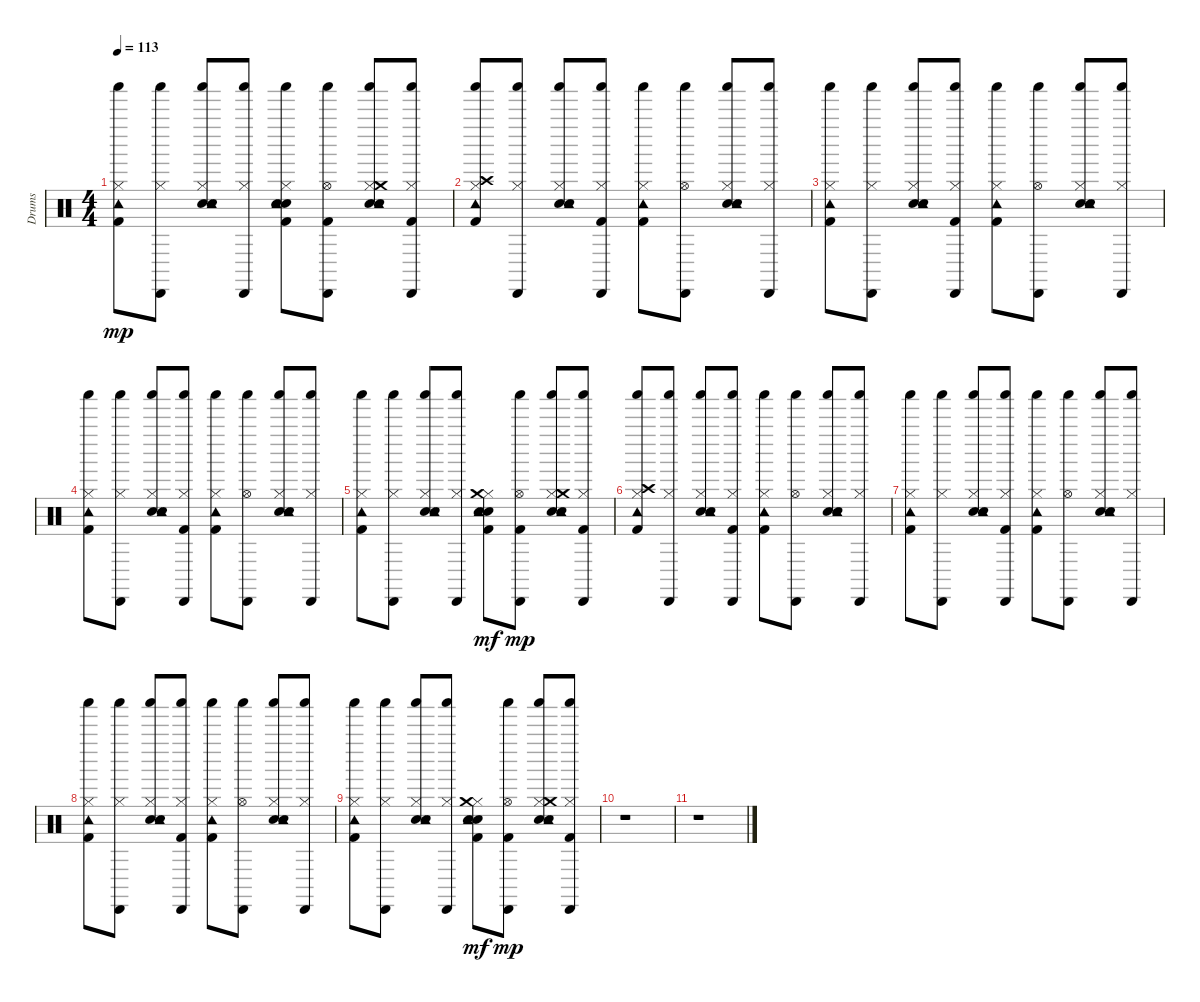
\track ("Drums" "Drums") {instrument percussion}
\staff {score}
\articulation defaults
\ts (4 4)
\tempo 113
\clef neutral
\ks c
("Kick (hit) 2" "Hi-Hat (closed)" "Tambourine (hit)" "Shaker (hit)").8{dy mp} ("Hi-Hat (closed)" "Shaker (hit)" "Cabasa (hit)").8 ("Hand Clap (hit)" "Snare (hit) 2" "Hi-Hat (closed)" "Tambourine (hit)" "Shaker (hit)").8 ("Hi-Hat (closed)" "Shaker (hit)" "Cabasa (hit)").8 ("Kick (hit) 2" "Hand Clap (hit)" "Snare (hit) 2" "Hi-Hat (closed)" "Tambourine (hit)" "Shaker (hit)").8 ("Kick (hit) 2" "Hi-Hat (open)" "Shaker (hit)" "Cabasa (hit)").8 ("Hand Clap (hit)" "Snare (hit) 2" "Hi-Hat (closed)" "Crash medium (hit)" "Tambourine (hit)" "Shaker (hit)").8 ("Kick (hit) 2" "Hi-Hat (closed)" "Shaker (hit)" "Cabasa (hit)").8 |
("Kick (hit) 2" "Hi-Hat (closed)" "Crash high (hit)" "Tambourine (hit)" "Shaker (hit)").8 ("Hi-Hat (closed)" "Shaker (hit)" "Cabasa (hit)").8 ("Hand Clap (hit)" "Snare (hit) 2" "Hi-Hat (closed)" "Tambourine (hit)" "Shaker (hit)").8 ("Hi-Hat (closed)" "Shaker (hit)" "Kick (hit) 2" "Cabasa (hit)").8 ("Kick (hit) 2" "Hi-Hat (closed)" "Tambourine (hit)" "Shaker (hit)").8 ("Hi-Hat (open)" "Shaker (hit)" "Cabasa (hit)").8 ("Hand Clap (hit)" "Snare (hit) 2" "Hi-Hat (closed)" "Tambourine (hit)" "Shaker (hit)").8 ("Hi-Hat (closed)" "Shaker (hit)" "Cabasa (hit)").8 |
("Kick (hit) 2" "Hi-Hat (closed)" "Tambourine (hit)" "Shaker (hit)").8 ("Hi-Hat (closed)" "Shaker (hit)" "Cabasa (hit)").8 ("Hand Clap (hit)" "Snare (hit) 2" "Hi-Hat (closed)" "Tambourine (hit)" "Shaker (hit)").8 ("Hi-Hat (closed)" "Shaker (hit)" "Kick (hit) 2" "Cabasa (hit)").8 ("Kick (hit) 2" "Hi-Hat (closed)" "Tambourine (hit)" "Shaker (hit)").8 ("Hi-Hat (open)" "Shaker (hit)" "Cabasa (hit)").8 ("Hand Clap (hit)" "Snare (hit) 2" "Hi-Hat (closed)" "Tambourine (hit)" "Shaker (hit)").8 ("Hi-Hat (closed)" "Shaker (hit)" "Cabasa (hit)").8 |
("Kick (hit) 2" "Hi-Hat (closed)" "Tambourine (hit)" "Shaker (hit)").8 ("Hi-Hat (closed)" "Shaker (hit)" "Cabasa (hit)").8 ("Hand Clap (hit)" "Snare (hit) 2" "Hi-Hat (closed)" "Tambourine (hit)" "Shaker (hit)").8 ("Hi-Hat (closed)" "Shaker (hit)" "Kick (hit) 2" "Cabasa (hit)").8 ("Kick (hit) 2" "Hi-Hat (closed)" "Tambourine (hit)" "Shaker (hit)").8 ("Hi-Hat (open)" "Shaker (hit)" "Cabasa (hit)").8 ("Hand Clap (hit)" "Snare (hit) 2" "Hi-Hat (closed)" "Tambourine (hit)" "Shaker (hit)").8 ("Hi-Hat (closed)" "Shaker (hit)" "Cabasa (hit)").8 |
("Kick (hit) 2" "Hi-Hat (closed)" "Tambourine (hit)" "Shaker (hit)").8 ("Hi-Hat (closed)" "Shaker (hit)" "Cabasa (hit)").8 ("Hand Clap (hit)" "Snare (hit) 2" "Hi-Hat (closed)" "Tambourine (hit)" "Shaker (hit)").8 ("Hi-Hat (closed)" "Shaker (hit)" "Cabasa (hit)").8 ("Kick (hit) 2" "Hand Clap (hit)" "Snare (hit) 2" "Hi-Hat (closed)" "Crash medium (hit)" "Tambourine (hit)").8{dy mf} ("Kick (hit) 2" "Hi-Hat (open)" "Shaker (hit)" "Cabasa (hit)").8{dy mp} ("Hand Clap (hit)" "Snare (hit) 2" "Hi-Hat (closed)" "Crash medium (hit)" "Tambourine (hit)" "Shaker (hit)").8 ("Kick (hit) 2" "Hi-Hat (closed)" "Shaker (hit)" "Cabasa (hit)").8 |
("Kick (hit) 2" "Hi-Hat (closed)" "Crash high (hit)" "Tambourine (hit)" "Shaker (hit)").8 ("Hi-Hat (closed)" "Shaker (hit)" "Cabasa (hit)").8 ("Hand Clap (hit)" "Snare (hit) 2" "Hi-Hat (closed)" "Tambourine (hit)" "Shaker (hit)").8 ("Hi-Hat (closed)" "Shaker (hit)" "Kick (hit) 2" "Cabasa (hit)").8 ("Kick (hit) 2" "Hi-Hat (closed)" "Tambourine (hit)" "Shaker (hit)").8 ("Hi-Hat (open)" "Shaker (hit)" "Cabasa (hit)").8 ("Hand Clap (hit)" "Snare (hit) 2" "Hi-Hat (closed)" "Tambourine (hit)" "Shaker (hit)").8 ("Hi-Hat (closed)" "Shaker (hit)" "Cabasa (hit)").8 |
("Kick (hit) 2" "Hi-Hat (closed)" "Tambourine (hit)" "Shaker (hit)").8 ("Hi-Hat (closed)" "Shaker (hit)" "Cabasa (hit)").8 ("Hand Clap (hit)" "Snare (hit) 2" "Hi-Hat (closed)" "Tambourine (hit)" "Shaker (hit)").8 ("Hi-Hat (closed)" "Shaker (hit)" "Kick (hit) 2" "Cabasa (hit)").8 ("Kick (hit) 2" "Hi-Hat (closed)" "Tambourine (hit)" "Shaker (hit)").8 ("Hi-Hat (open)" "Shaker (hit)" "Cabasa (hit)").8 ("Hand Clap (hit)" "Snare (hit) 2" "Hi-Hat (closed)" "Tambourine (hit)" "Shaker (hit)").8 ("Hi-Hat (closed)" "Shaker (hit)" "Cabasa (hit)").8 |
("Kick (hit) 2" "Hi-Hat (closed)" "Tambourine (hit)" "Shaker (hit)").8 ("Hi-Hat (closed)" "Shaker (hit)" "Cabasa (hit)").8 ("Hand Clap (hit)" "Snare (hit) 2" "Hi-Hat (closed)" "Tambourine (hit)" "Shaker (hit)").8 ("Hi-Hat (closed)" "Shaker (hit)" "Kick (hit) 2" "Cabasa (hit)").8 ("Kick (hit) 2" "Hi-Hat (closed)" "Tambourine (hit)" "Shaker (hit)").8 ("Hi-Hat (open)" "Shaker (hit)" "Cabasa (hit)").8 ("Hand Clap (hit)" "Snare (hit) 2" "Hi-Hat (closed)" "Tambourine (hit)" "Shaker (hit)").8 ("Hi-Hat (closed)" "Shaker (hit)" "Cabasa (hit)").8 |
("Kick (hit) 2" "Hi-Hat (closed)" "Tambourine (hit)" "Shaker (hit)").8 ("Hi-Hat (closed)" "Shaker (hit)" "Cabasa (hit)").8 ("Hand Clap (hit)" "Snare (hit) 2" "Hi-Hat (closed)" "Tambourine (hit)" "Shaker (hit)").8 ("Hi-Hat (closed)" "Shaker (hit)" "Cabasa (hit)").8 ("Kick (hit) 2" "Hand Clap (hit)" "Snare (hit) 2" "Hi-Hat (closed)" "Crash medium (hit)" "Tambourine (hit)").8{dy mf} ("Kick (hit) 2" "Hi-Hat (open)" "Shaker (hit)" "Cabasa (hit)").8{dy mp} ("Hand Clap (hit)" "Snare (hit) 2" "Hi-Hat (closed)" "Crash medium (hit)" "Tambourine (hit)" "Shaker (hit)").8 ("Kick (hit) 2" "Hi-Hat (closed)" "Shaker (hit)" "Cabasa (hit)").8 |
r.1 |
r.1
